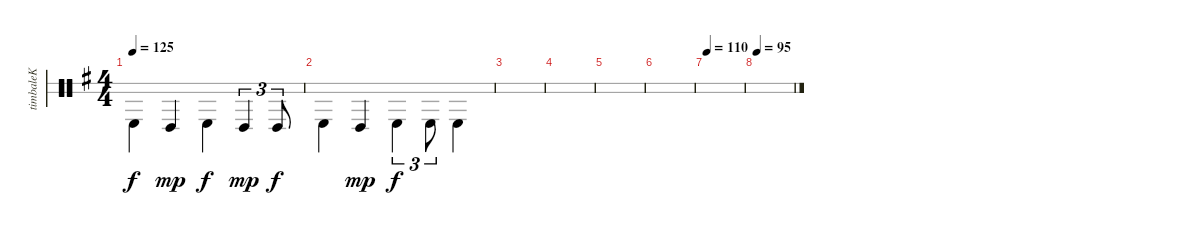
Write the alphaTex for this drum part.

\defaultSystemsLayout 4
\bracketExtendMode groupsimilarinstruments
\otherSystemsTrackNameOrientation horizontal
\track ("Timbale" "timbaleK") {instrument percussion}
\staff {score 2}
\articulation defaults
\ts (4 4)
\tempo 125
\clef neutral
\scale
0.333333
\ks g "Timbale high (hit)"{acc forcenatural}.4{dy f beam Down} "Timbale low (hit)"{acc forcenatural}.4{dy mp beam Up} "Timbale high (hit)"{acc forcenatural}.4{dy f beam Down} "Timbale low (hit)"{acc forcenatural}.4{tu (3 2) dy mp beam Up} "Timbale low (hit)"{acc forcenatural}.8{tu (3 2) dy f beam Up}
|
"Timbale high (hit)"{acc forcenatural}.4{beam Down} "Timbale low (hit)"{acc forcenatural}.4{dy mp beam Up} "Timbale high (hit)"{acc forcenatural}.4{tu (3 2) dy f beam Down} "Timbale high (hit)"{acc forcenatural}.8{tu (3 2) beam Down} "Timbale high (hit)"{acc forcenatural}.4{beam Down} |
|
|
|
|
\tempo 110
|
\tempo 95
